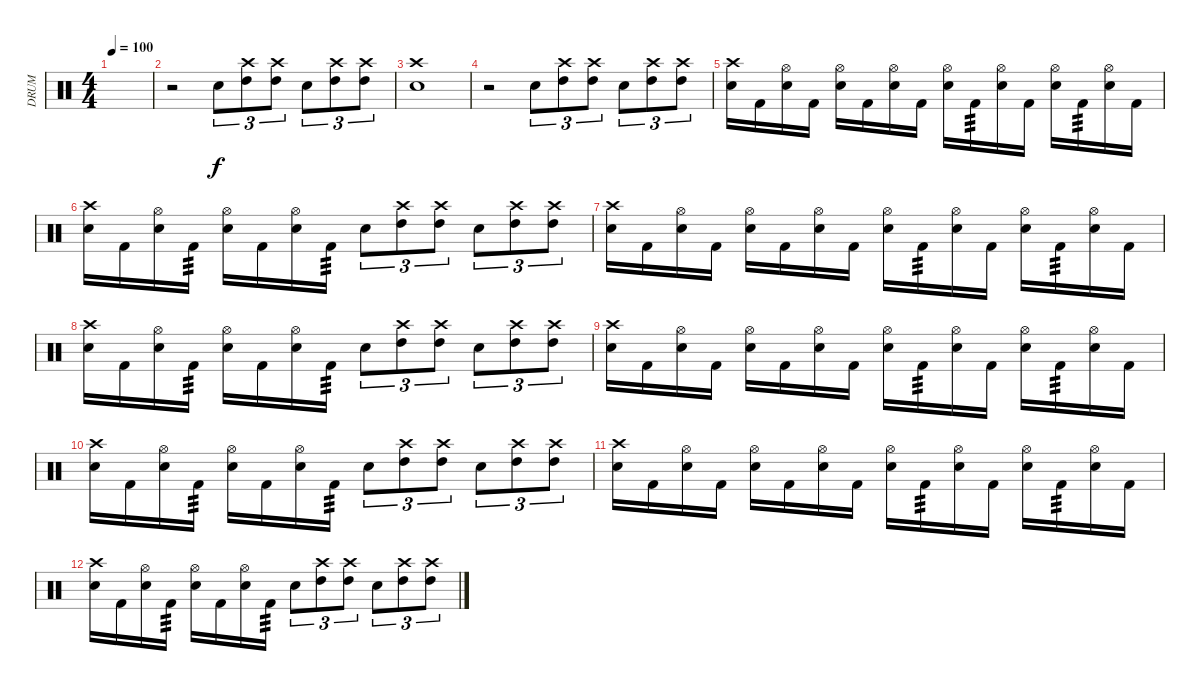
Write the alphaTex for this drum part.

\track ("DRUM" "DRUM") {instrument percussion}
\staff {score}
\articulation defaults
\ts (4 4)
\tempo 100
\clef neutral
\ks c
|
r.2 "Snare (hit) 2".8{tu (3 2)} ("Crash high (hit)" "High Tom (hit)").8{tu (3 2)} ("Crash high (hit)" "High Tom (hit)").8{tu (3 2)} "Snare (hit) 2".8{tu (3 2)} ("Crash high (hit)" "High Tom (hit)").8{tu (3 2)} ("Crash high (hit)" "High Tom (hit)").8{tu (3 2)} |
("Crash high (hit)" "Snare (hit) 2").1 |
r.2 "Snare (hit) 2".8{tu (3 2)} ("Crash high (hit)" "High Tom (hit)").8{tu (3 2)} ("Crash high (hit)" "High Tom (hit)").8{tu (3 2)} "Snare (hit) 2".8{tu (3 2)} ("Crash high (hit)" "High Tom (hit)").8{tu (3 2)} ("Crash high (hit)" "High Tom (hit)").8{tu (3 2)} |
("Crash high (hit)" "Snare (hit) 2").16 "Kick (hit) 2".16 ("Hi-Hat (open)" "Snare (hit) 2").16 "Kick (hit) 2".16 ("Hi-Hat (open)" "Snare (hit) 2").16 "Kick (hit) 2".16 ("Hi-Hat (open)" "Snare (hit) 2").16 "Kick (hit) 2".16 ("Hi-Hat (open)" "Snare (hit) 2").16 "Kick (hit) 2".16{tp 3} ("Hi-Hat (open)" "Snare (hit) 2").16 "Kick (hit) 2".16 ("Hi-Hat (open)" "Snare (hit) 2").16 "Kick (hit) 2".16{tp 3} ("Hi-Hat (open)" "Snare (hit) 2").16 "Kick (hit) 2".16 |
("Crash high (hit)" "Snare (hit) 2").16 "Kick (hit) 2".16 ("Hi-Hat (open)" "Snare (hit) 2").16 "Kick (hit) 2".16{tp 3} ("Hi-Hat (open)" "Snare (hit) 2").16 "Kick (hit) 2".16 ("Hi-Hat (open)" "Snare (hit) 2").16 "Kick (hit) 2".16{tp 3} "Snare (hit) 2".8{tu (3 2)} ("Crash high (hit)" "High Tom (hit)").8{tu (3 2)} ("Crash high (hit)" "High Tom (hit)").8{tu (3 2)} "Snare (hit) 2".8{tu (3 2)} ("Crash high (hit)" "High Tom (hit)").8{tu (3 2)} ("Crash high (hit)" "High Tom (hit)").8{tu (3 2)} |
("Crash high (hit)" "Snare (hit) 2").16 "Kick (hit) 2".16 ("Hi-Hat (open)" "Snare (hit) 2").16 "Kick (hit) 2".16 ("Hi-Hat (open)" "Snare (hit) 2").16 "Kick (hit) 2".16 ("Hi-Hat (open)" "Snare (hit) 2").16 "Kick (hit) 2".16 ("Hi-Hat (open)" "Snare (hit) 2").16 "Kick (hit) 2".16{tp 3} ("Hi-Hat (open)" "Snare (hit) 2").16 "Kick (hit) 2".16 ("Hi-Hat (open)" "Snare (hit) 2").16 "Kick (hit) 2".16{tp 3} ("Hi-Hat (open)" "Snare (hit) 2").16 "Kick (hit) 2".16 |
("Crash high (hit)" "Snare (hit) 2").16 "Kick (hit) 2".16 ("Hi-Hat (open)" "Snare (hit) 2").16 "Kick (hit) 2".16{tp 3} ("Hi-Hat (open)" "Snare (hit) 2").16 "Kick (hit) 2".16 ("Hi-Hat (open)" "Snare (hit) 2").16 "Kick (hit) 2".16{tp 3} "Snare (hit) 2".8{tu (3 2)} ("Crash high (hit)" "High Tom (hit)").8{tu (3 2)} ("Crash high (hit)" "High Tom (hit)").8{tu (3 2)} "Snare (hit) 2".8{tu (3 2)} ("Crash high (hit)" "High Tom (hit)").8{tu (3 2)} ("Crash high (hit)" "High Tom (hit)").8{tu (3 2)} |
("Crash high (hit)" "Snare (hit) 2").16 "Kick (hit) 2".16 ("Hi-Hat (open)" "Snare (hit) 2").16 "Kick (hit) 2".16 ("Hi-Hat (open)" "Snare (hit) 2").16 "Kick (hit) 2".16 ("Hi-Hat (open)" "Snare (hit) 2").16 "Kick (hit) 2".16 ("Hi-Hat (open)" "Snare (hit) 2").16 "Kick (hit) 2".16{tp 3} ("Hi-Hat (open)" "Snare (hit) 2").16 "Kick (hit) 2".16 ("Hi-Hat (open)" "Snare (hit) 2").16 "Kick (hit) 2".16{tp 3} ("Hi-Hat (open)" "Snare (hit) 2").16 "Kick (hit) 2".16 |
("Crash high (hit)" "Snare (hit) 2").16 "Kick (hit) 2".16 ("Hi-Hat (open)" "Snare (hit) 2").16 "Kick (hit) 2".16{tp 3} ("Hi-Hat (open)" "Snare (hit) 2").16 "Kick (hit) 2".16 ("Hi-Hat (open)" "Snare (hit) 2").16 "Kick (hit) 2".16{tp 3} "Snare (hit) 2".8{tu (3 2)} ("Crash high (hit)" "High Tom (hit)").8{tu (3 2)} ("Crash high (hit)" "High Tom (hit)").8{tu (3 2)} "Snare (hit) 2".8{tu (3 2)} ("Crash high (hit)" "High Tom (hit)").8{tu (3 2)} ("Crash high (hit)" "High Tom (hit)").8{tu (3 2)} |
("Crash high (hit)" "Snare (hit) 2").16 "Kick (hit) 2".16 ("Hi-Hat (open)" "Snare (hit) 2").16 "Kick (hit) 2".16 ("Hi-Hat (open)" "Snare (hit) 2").16 "Kick (hit) 2".16 ("Hi-Hat (open)" "Snare (hit) 2").16 "Kick (hit) 2".16 ("Hi-Hat (open)" "Snare (hit) 2").16 "Kick (hit) 2".16{tp 3} ("Hi-Hat (open)" "Snare (hit) 2").16 "Kick (hit) 2".16 ("Hi-Hat (open)" "Snare (hit) 2").16 "Kick (hit) 2".16{tp 3} ("Hi-Hat (open)" "Snare (hit) 2").16 "Kick (hit) 2".16 |
("Crash high (hit)" "Snare (hit) 2").16 "Kick (hit) 2".16 ("Hi-Hat (open)" "Snare (hit) 2").16 "Kick (hit) 2".16{tp 3} ("Hi-Hat (open)" "Snare (hit) 2").16 "Kick (hit) 2".16 ("Hi-Hat (open)" "Snare (hit) 2").16 "Kick (hit) 2".16{tp 3} "Snare (hit) 2".8{tu (3 2)} ("Crash high (hit)" "High Tom (hit)").8{tu (3 2)} ("Crash high (hit)" "High Tom (hit)").8{tu (3 2)} "Snare (hit) 2".8{tu (3 2)} ("Crash high (hit)" "High Tom (hit)").8{tu (3 2)} ("Crash high (hit)" "High Tom (hit)").8{tu (3 2)}
